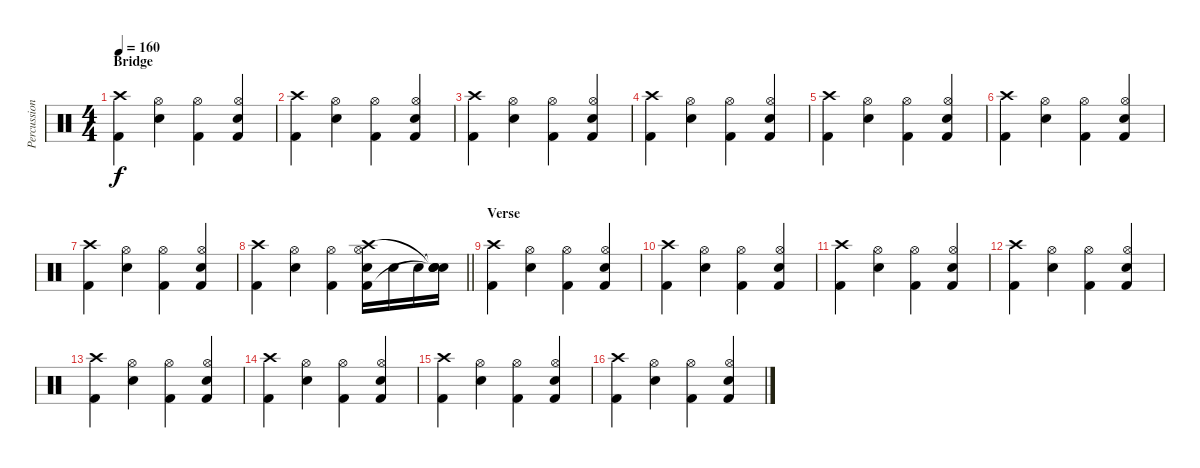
\track ("Percussion" "Percussion") {instrument percussion}
\staff {score}
\articulation defaults
\ts (4 4)
\section ("" "Bridge")
\tempo 160
\clef neutral
\ks c
("Crash high (hit)" "Kick (hit) 2").4{dy f} ("Hi-Hat (open)" "Snare (hit) 2").4 ("Hi-Hat (open)" "Kick (hit) 2").4 ("Hi-Hat (open)" "Snare (hit) 2" "Kick (hit) 2").4 |
("Crash high (hit)" "Kick (hit) 2").4 ("Hi-Hat (open)" "Snare (hit) 2").4 ("Hi-Hat (open)" "Kick (hit) 2").4 ("Hi-Hat (open)" "Snare (hit) 2" "Kick (hit) 2").4 |
("Crash high (hit)" "Kick (hit) 2").4 ("Hi-Hat (open)" "Snare (hit) 2").4 ("Hi-Hat (open)" "Kick (hit) 2").4 ("Hi-Hat (open)" "Snare (hit) 2" "Kick (hit) 2").4 |
("Crash high (hit)" "Kick (hit) 2").4 ("Hi-Hat (open)" "Snare (hit) 2").4 ("Hi-Hat (open)" "Kick (hit) 2").4 ("Hi-Hat (open)" "Snare (hit) 2" "Kick (hit) 2").4 |
("Crash high (hit)" "Kick (hit) 2").4 ("Hi-Hat (open)" "Snare (hit) 2").4 ("Hi-Hat (open)" "Kick (hit) 2").4 ("Hi-Hat (open)" "Snare (hit) 2" "Kick (hit) 2").4 |
("Crash high (hit)" "Kick (hit) 2").4 ("Hi-Hat (open)" "Snare (hit) 2").4 ("Hi-Hat (open)" "Kick (hit) 2").4 ("Hi-Hat (open)" "Snare (hit) 2" "Kick (hit) 2").4 |
("Crash high (hit)" "Kick (hit) 2").4 ("Hi-Hat (open)" "Snare (hit) 2").4 ("Hi-Hat (open)" "Kick (hit) 2").4 ("Hi-Hat (open)" "Snare (hit) 2" "Kick (hit) 2").4 |
\barLineRight lightlight
("Crash high (hit)" "Kick (hit) 2").4 ("Hi-Hat (open)" "Snare (hit) 2").4 ("Hi-Hat (open)" "Kick (hit) 2").4 ("Hi-Hat (open)" "Snare (hit) 2" "Kick (hit) 2" "Crash high (hit)").16 "Snare (hit) 2".16 "Snare (hit) 2".16 ("Snare (hit)"{t} "Snare (hit) 2" "Snare (hit)"{t} "Snare (hit)"{t}).16 |
\section ("" "Verse")
("Crash high (hit)" "Kick (hit) 2").4 ("Hi-Hat (open)" "Snare (hit) 2").4 ("Hi-Hat (open)" "Kick (hit) 2").4 ("Hi-Hat (open)" "Snare (hit) 2" "Kick (hit) 2").4 |
("Crash high (hit)" "Kick (hit) 2").4 ("Hi-Hat (open)" "Snare (hit) 2").4 ("Hi-Hat (open)" "Kick (hit) 2").4 ("Hi-Hat (open)" "Snare (hit) 2" "Kick (hit) 2").4 |
("Crash high (hit)" "Kick (hit) 2").4 ("Hi-Hat (open)" "Snare (hit) 2").4 ("Hi-Hat (open)" "Kick (hit) 2").4 ("Hi-Hat (open)" "Snare (hit) 2" "Kick (hit) 2").4 |
("Crash high (hit)" "Kick (hit) 2").4 ("Hi-Hat (open)" "Snare (hit) 2").4 ("Hi-Hat (open)" "Kick (hit) 2").4 ("Hi-Hat (open)" "Snare (hit) 2" "Kick (hit) 2").4 |
("Crash high (hit)" "Kick (hit) 2").4 ("Hi-Hat (open)" "Snare (hit) 2").4 ("Hi-Hat (open)" "Kick (hit) 2").4 ("Hi-Hat (open)" "Snare (hit) 2" "Kick (hit) 2").4 |
("Crash high (hit)" "Kick (hit) 2").4 ("Hi-Hat (open)" "Snare (hit) 2").4 ("Hi-Hat (open)" "Kick (hit) 2").4 ("Hi-Hat (open)" "Snare (hit) 2" "Kick (hit) 2").4 |
("Crash high (hit)" "Kick (hit) 2").4 ("Hi-Hat (open)" "Snare (hit) 2").4 ("Hi-Hat (open)" "Kick (hit) 2").4 ("Hi-Hat (open)" "Snare (hit) 2" "Kick (hit) 2").4 |
("Crash high (hit)" "Kick (hit) 2").4 ("Hi-Hat (open)" "Snare (hit) 2").4 ("Hi-Hat (open)" "Kick (hit) 2").4 ("Hi-Hat (open)" "Snare (hit) 2" "Kick (hit) 2").4
